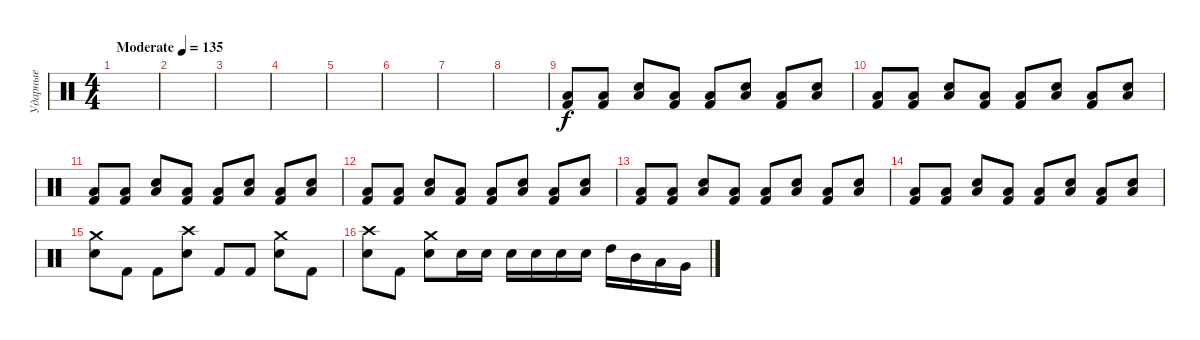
\track ("Ударные" "Ударные") {instrument percussion}
\staff {score}
\articulation defaults
\ts (4 4)
\tempo (135 "Moderate")
\clef neutral
\ks c
|
|
|
|
|
|
|
|
("Low Tom (hit)" "Kick (hit) 2").8 ("Low Tom (hit)" "Kick (hit) 2").8 ("Low Tom (hit)" "Electric Snare (hit)").8 ("Low Tom (hit)" "Kick (hit) 2").8 ("Low Tom (hit)" "Kick (hit) 2").8 ("Low Tom (hit)" "Electric Snare (hit)").8 ("Low Tom (hit)" "Kick (hit) 2").8 ("Low Tom (hit)" "Electric Snare (hit)").8 |
("Low Tom (hit)" "Kick (hit) 2").8 ("Low Tom (hit)" "Kick (hit) 2").8 ("Low Tom (hit)" "Electric Snare (hit)").8 ("Low Tom (hit)" "Kick (hit) 2").8 ("Low Tom (hit)" "Kick (hit) 2").8 ("Low Tom (hit)" "Electric Snare (hit)").8 ("Low Tom (hit)" "Kick (hit) 2").8 ("Low Tom (hit)" "Electric Snare (hit)").8 |
("Low Tom (hit)" "Kick (hit) 2").8 ("Low Tom (hit)" "Kick (hit) 2").8 ("Low Tom (hit)" "Electric Snare (hit)").8 ("Low Tom (hit)" "Kick (hit) 2").8 ("Low Tom (hit)" "Kick (hit) 2").8 ("Low Tom (hit)" "Electric Snare (hit)").8 ("Low Tom (hit)" "Kick (hit) 2").8 ("Low Tom (hit)" "Electric Snare (hit)").8 |
("Low Tom (hit)" "Kick (hit) 2").8 ("Low Tom (hit)" "Kick (hit) 2").8 ("Low Tom (hit)" "Electric Snare (hit)").8 ("Low Tom (hit)" "Kick (hit) 2").8 ("Low Tom (hit)" "Kick (hit) 2").8 ("Low Tom (hit)" "Electric Snare (hit)").8 ("Low Tom (hit)" "Kick (hit) 2").8 ("Low Tom (hit)" "Electric Snare (hit)").8 |
("Low Tom (hit)" "Kick (hit) 2").8 ("Low Tom (hit)" "Kick (hit) 2").8 ("Low Tom (hit)" "Electric Snare (hit)").8 ("Low Tom (hit)" "Kick (hit) 2").8 ("Low Tom (hit)" "Kick (hit) 2").8 ("Low Tom (hit)" "Electric Snare (hit)").8 ("Low Tom (hit)" "Kick (hit) 2").8 ("Low Tom (hit)" "Electric Snare (hit)").8 |
("Low Tom (hit)" "Kick (hit) 2").8 ("Low Tom (hit)" "Kick (hit) 2").8 ("Low Tom (hit)" "Electric Snare (hit)").8 ("Low Tom (hit)" "Kick (hit) 2").8 ("Low Tom (hit)" "Kick (hit) 2").8 ("Low Tom (hit)" "Electric Snare (hit)").8 ("Low Tom (hit)" "Kick (hit) 2").8 ("Low Tom (hit)" "Electric Snare (hit)").8 |
("Crash medium (hit)" "Electric Snare (hit)").8 "Kick (hit) 2".8 "Kick (hit) 2".8 ("Crash high (hit)" "Electric Snare (hit)").8 "Kick (hit) 2".8 "Kick (hit) 2".8 ("Crash medium (hit)" "Electric Snare (hit)").8 "Kick (hit) 2".8 |
("Crash high (hit)" "Electric Snare (hit)").8 "Kick (hit) 2".8 ("Crash medium (hit)" "Electric Snare (hit)").8 "Electric Snare (hit)".16 "Electric Snare (hit)".16 "Electric Snare (hit)".16 "Electric Snare (hit)".16 "Electric Snare (hit)".16 "Electric Snare (hit)".16 "High Tom (hit)".16 "Mid Tom (hit)".16 "Low Tom (hit)".16 "Very Low Tom (hit)".16
